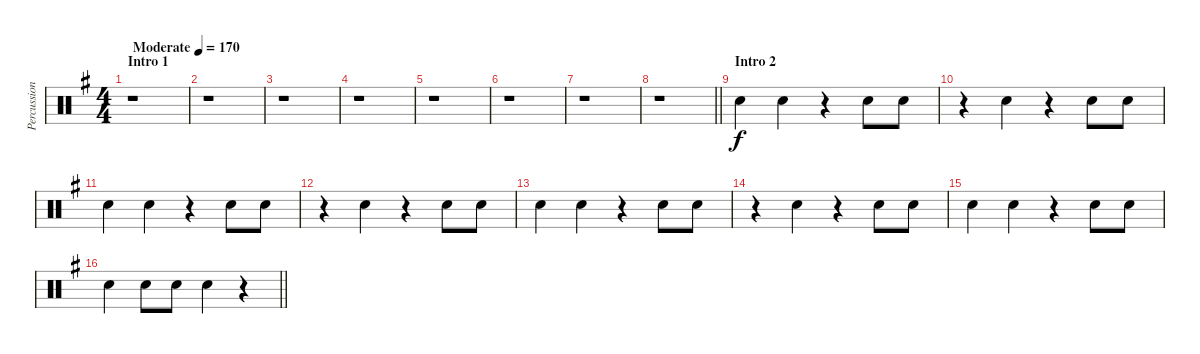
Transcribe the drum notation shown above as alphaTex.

\track ("Percussion" "Percussion") {instrument percussion}
\staff {score}
\articulation defaults
\ts (4 4)
\section ("" "Intro 1")
\tempo (170 "Moderate")
\clef neutral
\ks g
r.1{dy f} |
r.1 |
r.1 |
r.1 |
r.1 |
r.1 |
r.1 |
\barLineRight lightlight
r.1 |
\section ("" "Intro 2")
"Hand Clap (hit)".4 "Hand Clap (hit)".4 r.4 "Hand Clap (hit)".8 "Hand Clap (hit)".8 |
r.4 "Hand Clap (hit)".4 r.4 "Hand Clap (hit)".8 "Hand Clap (hit)".8 |
"Hand Clap (hit)".4 "Hand Clap (hit)".4 r.4 "Hand Clap (hit)".8 "Hand Clap (hit)".8 |
r.4 "Hand Clap (hit)".4 r.4 "Hand Clap (hit)".8 "Hand Clap (hit)".8 |
"Hand Clap (hit)".4 "Hand Clap (hit)".4 r.4 "Hand Clap (hit)".8 "Hand Clap (hit)".8 |
r.4 "Hand Clap (hit)".4 r.4 "Hand Clap (hit)".8 "Hand Clap (hit)".8 |
"Hand Clap (hit)".4 "Hand Clap (hit)".4 r.4 "Hand Clap (hit)".8 "Hand Clap (hit)".8 |
\barLineRight lightlight "Hand Clap (hit)".4 "Hand Clap (hit)".8 "Hand Clap (hit)".8 "Hand Clap (hit)".4
r.4
